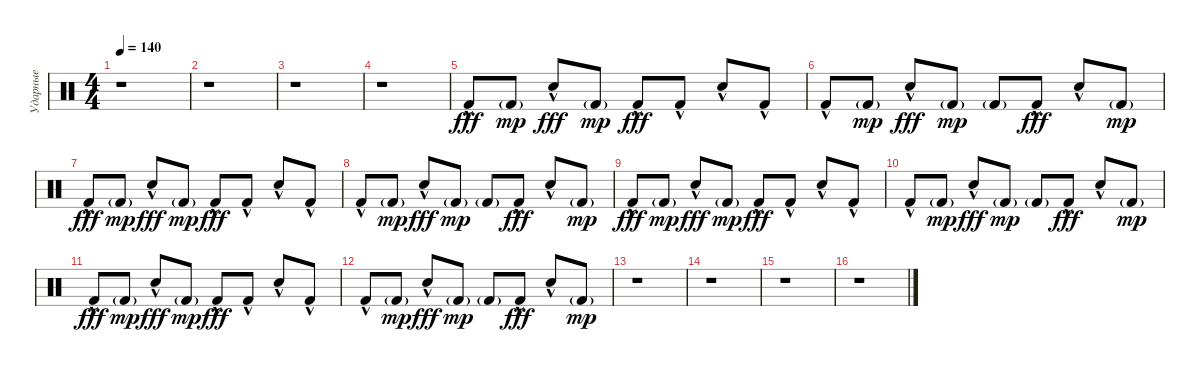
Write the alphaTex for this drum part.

\track ("Ударные" "Ударные") {instrument percussion}
\staff {score}
\articulation defaults
\ts (4 4)
\tempo 140
\clef neutral
\ks c
r.1{dy fff} |
r.1 |
r.1 |
r.1 |
"Kick (hit) 2"{hac}.8 "Kick (hit) 2"{g}.8{dy mp} "Snare (hit) 2"{hac}.8{dy fff} "Kick (hit) 2"{g}.8{dy mp} "Kick (hit) 2"{hac}.8{dy fff} "Kick (hit) 2"{hac}.8 "Snare (hit) 2"{hac}.8 "Kick (hit) 2"{hac}.8 |
"Kick (hit) 2"{hac}.8 "Kick (hit) 2"{g}.8{dy mp} "Snare (hit) 2"{hac}.8{dy fff} "Kick (hit) 2"{g}.8{dy mp} "Kick (hit) 2"{g}.8 "Kick (hit) 2"{hac}.8{dy fff} "Snare (hit) 2"{hac}.8 "Kick (hit) 2"{g}.8{dy mp} |
"Kick (hit) 2"{hac}.8{dy fff} "Kick (hit) 2"{g}.8{dy mp} "Snare (hit) 2"{hac}.8{dy fff} "Kick (hit) 2"{g}.8{dy mp} "Kick (hit) 2"{hac}.8{dy fff} "Kick (hit) 2"{hac}.8 "Snare (hit) 2"{hac}.8 "Kick (hit) 2"{hac}.8 |
"Kick (hit) 2"{hac}.8 "Kick (hit) 2"{g}.8{dy mp} "Snare (hit) 2"{hac}.8{dy fff} "Kick (hit) 2"{g}.8{dy mp} "Kick (hit) 2"{g}.8 "Kick (hit) 2"{hac}.8{dy fff} "Snare (hit) 2"{hac}.8 "Kick (hit) 2"{g}.8{dy mp} |
"Kick (hit) 2"{hac}.8{dy fff} "Kick (hit) 2"{g}.8{dy mp} "Snare (hit) 2"{hac}.8{dy fff} "Kick (hit) 2"{g}.8{dy mp} "Kick (hit) 2"{hac}.8{dy fff} "Kick (hit) 2"{hac}.8 "Snare (hit) 2"{hac}.8 "Kick (hit) 2"{hac}.8 |
"Kick (hit) 2"{hac}.8 "Kick (hit) 2"{g}.8{dy mp} "Snare (hit) 2"{hac}.8{dy fff} "Kick (hit) 2"{g}.8{dy mp} "Kick (hit) 2"{g}.8 "Kick (hit) 2"{hac}.8{dy fff} "Snare (hit) 2"{hac}.8 "Kick (hit) 2"{g}.8{dy mp} |
"Kick (hit) 2"{hac}.8{dy fff} "Kick (hit) 2"{g}.8{dy mp} "Snare (hit) 2"{hac}.8{dy fff} "Kick (hit) 2"{g}.8{dy mp} "Kick (hit) 2"{hac}.8{dy fff} "Kick (hit) 2"{hac}.8 "Snare (hit) 2"{hac}.8 "Kick (hit) 2"{hac}.8 |
"Kick (hit) 2"{hac}.8 "Kick (hit) 2"{g}.8{dy mp} "Snare (hit) 2"{hac}.8{dy fff} "Kick (hit) 2"{g}.8{dy mp} "Kick (hit) 2"{g}.8 "Kick (hit) 2"{hac}.8{dy fff} "Snare (hit) 2"{hac}.8 "Kick (hit) 2"{g}.8{dy mp} |
r.1 |
r.1 |
r.1 |
r.1
